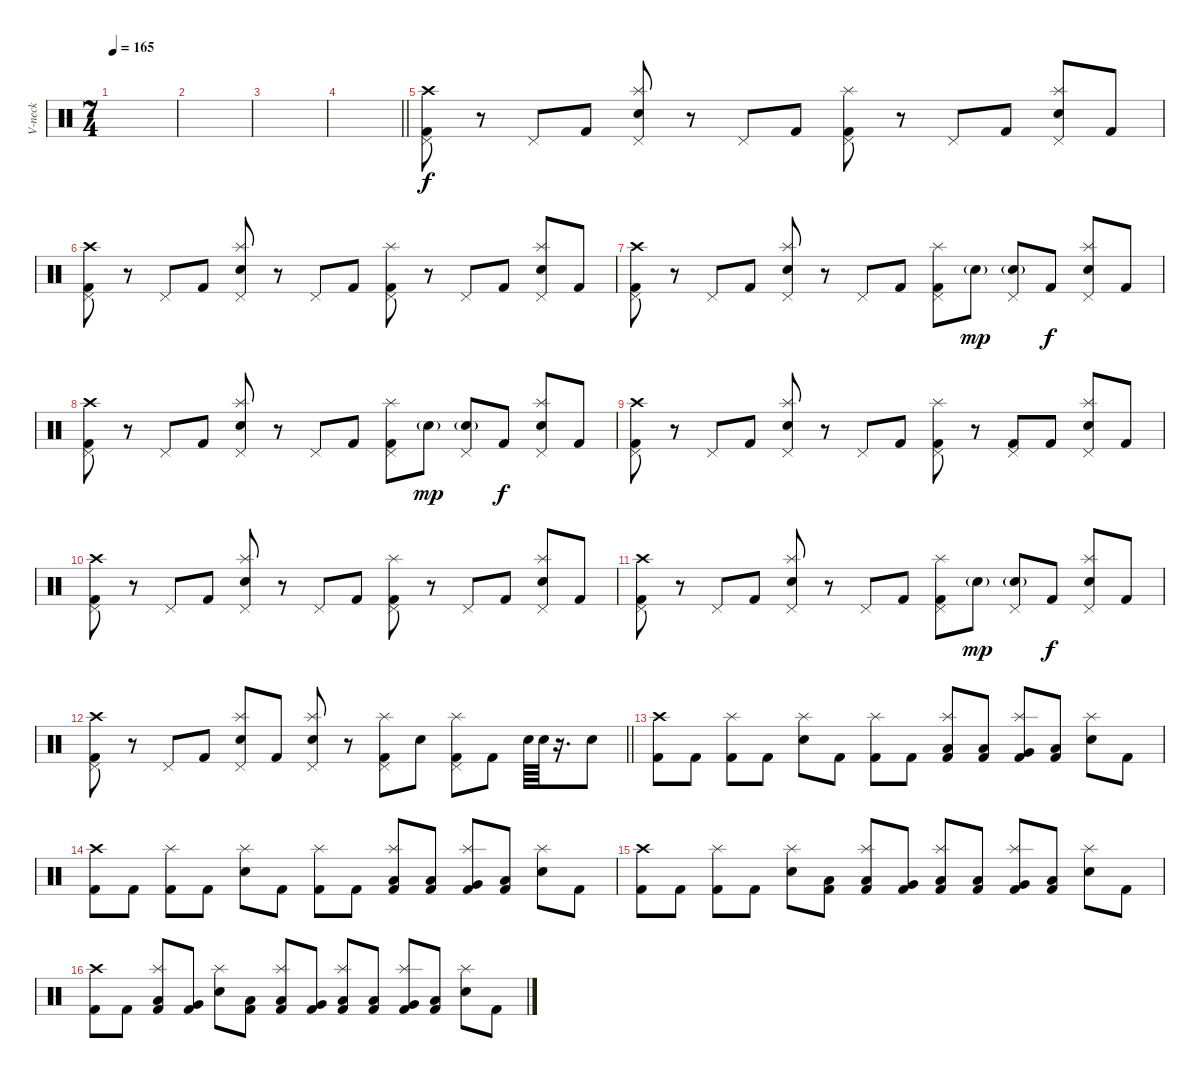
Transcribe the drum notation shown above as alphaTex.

\track ("V-neck" "V-neck") {instrument percussion}
\staff {score}
\articulation defaults
\ts (7 4)
\tempo 165
\clef neutral
\ks c
|
|
|
\barLineRight lightlight
|
\section ("" "")
("Crash high (hit)" "Pedal Hi-Hat (hit)" "Kick (hit) 2").8 r.8 "Pedal Hi-Hat (hit)".8 "Kick (hit) 2".8 ("Splash (hit)" "Pedal Hi-Hat (hit)" "Electric Snare (hit)").8 r.8 "Pedal Hi-Hat (hit)".8 "Kick (hit) 2".8 ("Splash (hit)" "Pedal Hi-Hat (hit)" "Kick (hit) 2").8 r.8 "Pedal Hi-Hat (hit)".8 "Kick (hit) 2".8 ("Splash (hit)" "Pedal Hi-Hat (hit)" "Electric Snare (hit)").8 "Kick (hit) 2".8 |
("Crash high (hit)" "Pedal Hi-Hat (hit)" "Kick (hit) 2").8 r.8 "Pedal Hi-Hat (hit)".8 "Kick (hit) 2".8 ("Splash (hit)" "Pedal Hi-Hat (hit)" "Electric Snare (hit)").8 r.8 "Pedal Hi-Hat (hit)".8 "Kick (hit) 2".8 ("Splash (hit)" "Pedal Hi-Hat (hit)" "Kick (hit) 2").8 r.8 "Pedal Hi-Hat (hit)".8 "Kick (hit) 2".8 ("Splash (hit)" "Pedal Hi-Hat (hit)" "Electric Snare (hit)").8 "Kick (hit) 2".8 |
("Crash high (hit)" "Pedal Hi-Hat (hit)" "Kick (hit) 2").8 r.8 "Pedal Hi-Hat (hit)".8 "Kick (hit) 2".8 ("Splash (hit)" "Pedal Hi-Hat (hit)" "Electric Snare (hit)").8 r.8 "Pedal Hi-Hat (hit)".8 "Kick (hit) 2".8 ("Splash (hit)" "Pedal Hi-Hat (hit)" "Kick (hit) 2").8 "Electric Snare (hit)"{g}.8{dy mp} ("Pedal Hi-Hat (hit)" "Electric Snare (hit)"{g}).8 "Kick (hit) 2".8{dy f} ("Splash (hit)" "Pedal Hi-Hat (hit)" "Electric Snare (hit)").8 "Kick (hit) 2".8 |
("Crash high (hit)" "Pedal Hi-Hat (hit)" "Kick (hit) 2").8 r.8 "Pedal Hi-Hat (hit)".8 "Kick (hit) 2".8 ("Splash (hit)" "Pedal Hi-Hat (hit)" "Electric Snare (hit)").8 r.8 "Pedal Hi-Hat (hit)".8 "Kick (hit) 2".8 ("Splash (hit)" "Pedal Hi-Hat (hit)" "Kick (hit) 2").8 "Electric Snare (hit)"{g}.8{dy mp} ("Pedal Hi-Hat (hit)" "Electric Snare (hit)"{g}).8 "Kick (hit) 2".8{dy f} ("Splash (hit)" "Pedal Hi-Hat (hit)" "Electric Snare (hit)").8 "Kick (hit) 2".8 |
("Crash high (hit)" "Pedal Hi-Hat (hit)" "Kick (hit) 2").8 r.8 "Pedal Hi-Hat (hit)".8 "Kick (hit) 2".8 ("Splash (hit)" "Pedal Hi-Hat (hit)" "Electric Snare (hit)").8 r.8 "Pedal Hi-Hat (hit)".8 "Kick (hit) 2".8 ("Splash (hit)" "Pedal Hi-Hat (hit)" "Kick (hit) 2").8 r.8 ("Pedal Hi-Hat (hit)" "Kick (hit) 2").8 "Kick (hit) 2".8 ("Splash (hit)" "Pedal Hi-Hat (hit)" "Electric Snare (hit)").8 "Kick (hit) 2".8 |
("Crash high (hit)" "Pedal Hi-Hat (hit)" "Kick (hit) 2").8 r.8 "Pedal Hi-Hat (hit)".8 "Kick (hit) 2".8 ("Splash (hit)" "Pedal Hi-Hat (hit)" "Electric Snare (hit)").8 r.8 "Pedal Hi-Hat (hit)".8 "Kick (hit) 2".8 ("Splash (hit)" "Pedal Hi-Hat (hit)" "Kick (hit) 2").8 r.8 "Pedal Hi-Hat (hit)".8 "Kick (hit) 2".8 ("Splash (hit)" "Pedal Hi-Hat (hit)" "Electric Snare (hit)").8 "Kick (hit) 2".8 |
("Crash high (hit)" "Pedal Hi-Hat (hit)" "Kick (hit) 2").8 r.8 "Pedal Hi-Hat (hit)".8 "Kick (hit) 2".8 ("Splash (hit)" "Pedal Hi-Hat (hit)" "Electric Snare (hit)").8 r.8 "Pedal Hi-Hat (hit)".8 "Kick (hit) 2".8 ("Splash (hit)" "Pedal Hi-Hat (hit)" "Kick (hit) 2").8 "Electric Snare (hit)"{g}.8{dy mp} ("Pedal Hi-Hat (hit)" "Electric Snare (hit)"{g}).8 "Kick (hit) 2".8{dy f} ("Splash (hit)" "Pedal Hi-Hat (hit)" "Electric Snare (hit)").8 "Kick (hit) 2".8 |
\barLineRight lightlight
("Crash high (hit)" "Pedal Hi-Hat (hit)" "Kick (hit) 2").8 r.8 "Pedal Hi-Hat (hit)".8 "Kick (hit) 2".8 ("Splash (hit)" "Pedal Hi-Hat (hit)" "Electric Snare (hit)").8 "Kick (hit) 2".8 ("Splash (hit)" "Pedal Hi-Hat (hit)" "Electric Snare (hit)").8 r.8 ("Splash (hit)" "Pedal Hi-Hat (hit)" "Kick (hit) 2").8 "Electric Snare (hit)".8 ("Splash (hit)" "Pedal Hi-Hat (hit)" "Kick (hit) 2").8 "Kick (hit) 2".8 "Electric Snare (hit)".64 "Electric Snare (hit)".64 r.16{d} "Electric Snare (hit)".8 |
\section ("" "")
("Crash high (hit)" "Kick (hit) 2").8 "Kick (hit) 2".8 ("Splash (hit)" "Kick (hit) 2").8 "Kick (hit) 2".8 ("Splash (hit)" "Electric Snare (hit)").8 "Kick (hit) 2".8 ("Splash (hit)" "Kick (hit) 2").8 "Kick (hit) 2".8 ("Splash (hit)" "Low Floor Tom (hit)" "Kick (hit) 2").8 ("Low Tom (hit)" "Kick (hit) 2").8 ("Splash (hit)" "Very Low Tom (hit)" "Kick (hit) 2").8 ("Low Floor Tom (hit)" "Kick (hit) 2").8 ("Splash (hit)" "Electric Snare (hit)").8 "Kick (hit) 2".8 |
("Crash high (hit)" "Kick (hit) 2").8 "Kick (hit) 2".8 ("Splash (hit)" "Kick (hit) 2").8 "Kick (hit) 2".8 ("Splash (hit)" "Electric Snare (hit)").8 "Kick (hit) 2".8 ("Splash (hit)" "Kick (hit) 2").8 "Kick (hit) 2".8 ("Splash (hit)" "Low Floor Tom (hit)" "Kick (hit) 2").8 ("Low Tom (hit)" "Kick (hit) 2").8 ("Splash (hit)" "Very Low Tom (hit)" "Kick (hit) 2").8 ("Low Floor Tom (hit)" "Kick (hit) 2").8 ("Splash (hit)" "Electric Snare (hit)").8 "Kick (hit) 2".8 |
("Crash high (hit)" "Kick (hit) 2").8 "Kick (hit) 2".8 ("Splash (hit)" "Kick (hit) 2").8 "Kick (hit) 2".8 ("Splash (hit)" "Electric Snare (hit)").8 ("Low Tom (hit)" "Kick (hit) 2").8 ("Splash (hit)" "Low Floor Tom (hit)" "Kick (hit) 2").8 ("Very Low Tom (hit)" "Kick (hit) 2").8 ("Splash (hit)" "Low Floor Tom (hit)" "Kick (hit) 2").8 ("Low Tom (hit)" "Kick (hit) 2").8 ("Splash (hit)" "Very Low Tom (hit)" "Kick (hit) 2").8 ("Low Floor Tom (hit)" "Kick (hit) 2").8 ("Splash (hit)" "Electric Snare (hit)").8 "Kick (hit) 2".8 |
("Crash high (hit)" "Kick (hit) 2").8 "Kick (hit) 2".8 ("Splash (hit)" "Low Tom (hit)" "Kick (hit) 2").8 ("Very Low Tom (hit)" "Kick (hit) 2").8 ("Splash (hit)" "Electric Snare (hit)").8 ("Low Tom (hit)" "Kick (hit) 2").8 ("Splash (hit)" "Low Floor Tom (hit)" "Kick (hit) 2").8 ("Very Low Tom (hit)" "Kick (hit) 2").8 ("Splash (hit)" "Low Floor Tom (hit)" "Kick (hit) 2").8 ("Low Tom (hit)" "Kick (hit) 2").8 ("Splash (hit)" "Very Low Tom (hit)" "Kick (hit) 2").8 ("Low Floor Tom (hit)" "Kick (hit) 2").8 ("Splash (hit)" "Electric Snare (hit)").8 "Kick (hit) 2".8
